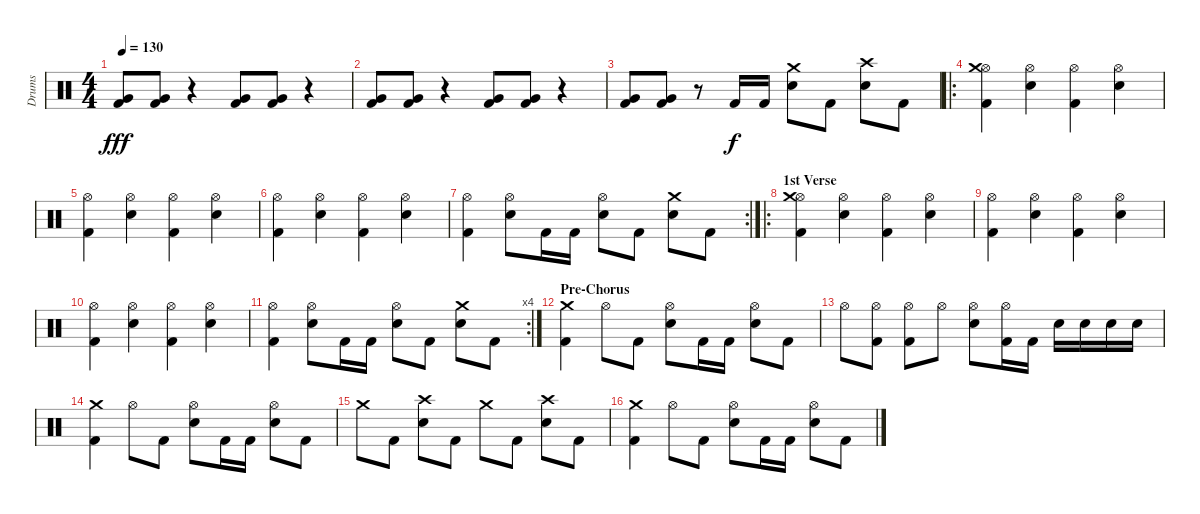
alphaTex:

\track ("Drums" "Drums") {instrument percussion}
\staff {score}
\articulation defaults
\ts (4 4)
\tempo 130
\clef neutral
\ks c
("Kick (hit) 2" "Very Low Tom (hit)").8{dy fff} ("Kick (hit) 2" "Very Low Tom (hit)").8 r.4 ("Kick (hit) 2" "Very Low Tom (hit)").8 ("Kick (hit) 2" "Very Low Tom (hit)").8 r.4 |
("Kick (hit) 2" "Very Low Tom (hit)").8 ("Kick (hit) 2" "Very Low Tom (hit)").8 r.4 ("Kick (hit) 2" "Very Low Tom (hit)").8 ("Kick (hit) 2" "Very Low Tom (hit)").8 r.4 |
("Kick (hit) 2" "Very Low Tom (hit)").8 ("Kick (hit) 2" "Very Low Tom (hit)").8 r.8 "Kick (hit) 2".16{dy f} "Kick (hit) 2".16 ("Electric Snare (hit)" "Crash medium (hit)").8 "Kick (hit) 2".8 ("Electric Snare (hit)" "Crash high (hit)").8 "Kick (hit) 2".8 |
\ro
("Kick (hit) 2" "Hi-Hat (open)" "Crash medium (hit)").4 ("Electric Snare (hit)" "Hi-Hat (open)").4 ("Kick (hit) 2" "Hi-Hat (open)").4 ("Electric Snare (hit)" "Hi-Hat (open)").4 |
("Kick (hit) 2" "Hi-Hat (open)").4 ("Electric Snare (hit)" "Hi-Hat (open)").4 ("Kick (hit) 2" "Hi-Hat (open)").4 ("Electric Snare (hit)" "Hi-Hat (open)").4 |
("Kick (hit) 2" "Hi-Hat (open)").4 ("Electric Snare (hit)" "Hi-Hat (open)").4 ("Kick (hit) 2" "Hi-Hat (open)").4 ("Electric Snare (hit)" "Hi-Hat (open)").4 |
\rc 2
("Kick (hit) 2" "Hi-Hat (open)").4 ("Electric Snare (hit)" "Hi-Hat (open)").8 "Kick (hit) 2".16 "Kick (hit) 2".16 ("Electric Snare (hit)" "Hi-Hat (open)").8 "Kick (hit) 2".8 ("Electric Snare (hit)" "Crash medium (hit)").8 "Kick (hit) 2".8 |
\ro
\section ("" "1st Verse")
("Kick (hit) 2" "Hi-Hat (open)" "Crash medium (hit)").4 ("Electric Snare (hit)" "Hi-Hat (open)").4 ("Kick (hit) 2" "Hi-Hat (open)").4 ("Electric Snare (hit)" "Hi-Hat (open)").4 |
("Kick (hit) 2" "Hi-Hat (open)").4 ("Electric Snare (hit)" "Hi-Hat (open)").4 ("Kick (hit) 2" "Hi-Hat (open)").4 ("Electric Snare (hit)" "Hi-Hat (open)").4 |
("Kick (hit) 2" "Hi-Hat (open)").4 ("Electric Snare (hit)" "Hi-Hat (open)").4 ("Kick (hit) 2" "Hi-Hat (open)").4 ("Electric Snare (hit)" "Hi-Hat (open)").4 |
\rc 4
("Kick (hit) 2" "Hi-Hat (open)").4 ("Electric Snare (hit)" "Hi-Hat (open)").8 "Kick (hit) 2".16 "Kick (hit) 2".16 ("Electric Snare (hit)" "Hi-Hat (open)").8 "Kick (hit) 2".8 ("Electric Snare (hit)" "Crash medium (hit)").8 "Kick (hit) 2".8 |
\section ("" "Pre-Chorus")
("Kick (hit) 2" "Crash medium (hit)").4 "Hi-Hat (open)".8 "Kick (hit) 2".8 ("Electric Snare (hit)" "Hi-Hat (open)").8 "Kick (hit) 2".16 "Kick (hit) 2".16 ("Electric Snare (hit)" "Hi-Hat (open)").8 "Kick (hit) 2".8 |
"Hi-Hat (open)".8 ("Kick (hit) 2" "Hi-Hat (open)").8 ("Kick (hit) 2" "Hi-Hat (open)").8 "Hi-Hat (open)".8 ("Electric Snare (hit)" "Hi-Hat (open)").8 ("Kick (hit) 2" "Hi-Hat (open)").16 "Kick (hit) 2".16 "Electric Snare (hit)".16 "Electric Snare (hit)".16 "Electric Snare (hit)".16 "Electric Snare (hit)".16 |
("Kick (hit) 2" "Crash medium (hit)").4 "Hi-Hat (open)".8 "Kick (hit) 2".8 ("Electric Snare (hit)" "Hi-Hat (open)").8 "Kick (hit) 2".16 "Kick (hit) 2".16 ("Electric Snare (hit)" "Hi-Hat (open)").8 "Kick (hit) 2".8 |
"Crash medium (hit)".8 "Kick (hit) 2".8 ("Electric Snare (hit)" "Crash high (hit)").8 "Kick (hit) 2".8 "Crash medium (hit)".8 "Kick (hit) 2".8 ("Electric Snare (hit)" "Crash high (hit)").8 "Kick (hit) 2".8 |
("Kick (hit) 2" "Crash medium (hit)").4 "Hi-Hat (open)".8 "Kick (hit) 2".8 ("Electric Snare (hit)" "Hi-Hat (open)").8 "Kick (hit) 2".16 "Kick (hit) 2".16 ("Electric Snare (hit)" "Hi-Hat (open)").8 "Kick (hit) 2".8
